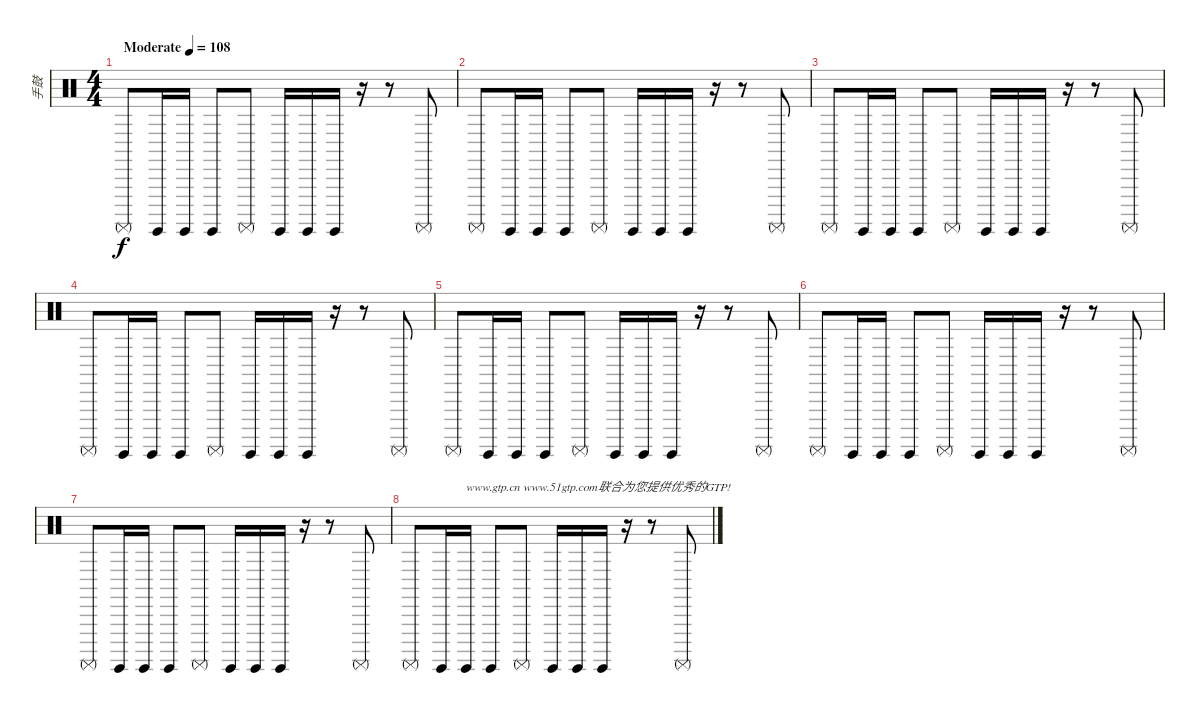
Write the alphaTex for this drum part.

\track ("手鼓" "手鼓") {instrument percussion}
\staff {score}
\articulation defaults
\ts (4 4)
\tempo (108 "Moderate")
\clef neutral
\ks c "Surdo (mute)".8{dy f} "Surdo (hit)".16 "Surdo (hit)".16 "Surdo (hit)".8 "Surdo (mute)".8 "Surdo (hit)".16 "Surdo (hit)".16 "Surdo (hit)".16
r.16 r.8 "Surdo (mute)".8 |
"Surdo (mute)".8 "Surdo (hit)".16 "Surdo (hit)".16 "Surdo (hit)".8 "Surdo (mute)".8 "Surdo (hit)".16 "Surdo (hit)".16 "Surdo (hit)".16 r.16 r.8 "Surdo (mute)".8 |
"Surdo (mute)".8 "Surdo (hit)".16 "Surdo (hit)".16 "Surdo (hit)".8 "Surdo (mute)".8 "Surdo (hit)".16 "Surdo (hit)".16 "Surdo (hit)".16 r.16 r.8 "Surdo (mute)".8 |
"Surdo (mute)".8 "Surdo (hit)".16 "Surdo (hit)".16 "Surdo (hit)".8 "Surdo (mute)".8 "Surdo (hit)".16 "Surdo (hit)".16 "Surdo (hit)".16 r.16 r.8 "Surdo (mute)".8 |
"Surdo (mute)".8 "Surdo (hit)".16 "Surdo (hit)".16 "Surdo (hit)".8 "Surdo (mute)".8 "Surdo (hit)".16 "Surdo (hit)".16 "Surdo (hit)".16 r.16 r.8 "Surdo (mute)".8 |
"Surdo (mute)".8 "Surdo (hit)".16 "Surdo (hit)".16 "Surdo (hit)".8 "Surdo (mute)".8 "Surdo (hit)".16 "Surdo (hit)".16 "Surdo (hit)".16 r.16 r.8 "Surdo (mute)".8 |
"Surdo (mute)".8 "Surdo (hit)".16 "Surdo (hit)".16 "Surdo (hit)".8 "Surdo (mute)".8 "Surdo (hit)".16 "Surdo (hit)".16 "Surdo (hit)".16 r.16 r.8 "Surdo (mute)".8 |
"Surdo (mute)".8 "Surdo (hit)".16 "Surdo (hit)".16{txt "www.gtp.cn www.51gtp.com联合为您提供优秀的GTP!"} "Surdo (hit)".8 "Surdo (mute)".8 "Surdo (hit)".16 "Surdo (hit)".16 "Surdo (hit)".16 r.16 r.8 "Surdo (mute)".8
